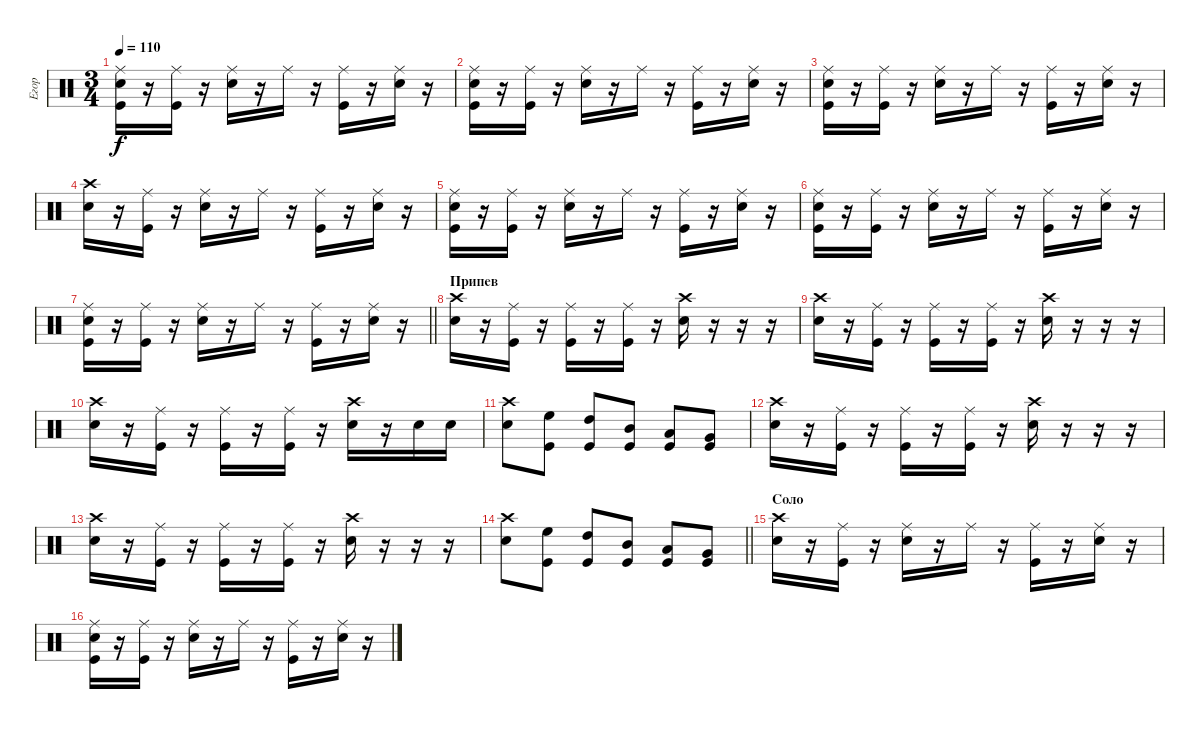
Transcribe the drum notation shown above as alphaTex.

\track ("Егор" "Егор") {instrument percussion}
\staff {score}
\articulation defaults
\ts (3 4)
\tempo 110
\clef neutral
\ks c
("Kick (hit)" "Ride (middle)" "Snare (hit) 2").16{dy f} r.16 ("Ride (middle)" "Kick (hit)").16 r.16 ("Snare (hit) 2" "Ride (middle)").16 r.16 "Ride (middle)".16 r.16 ("Ride (middle)" "Kick (hit)").16 r.16 ("Ride (middle)" "Snare (hit) 2").16 r.16 |
("Kick (hit)" "Ride (middle)" "Snare (hit) 2").16 r.16 ("Ride (middle)" "Kick (hit)").16 r.16 ("Snare (hit) 2" "Ride (middle)").16 r.16 "Ride (middle)".16 r.16 ("Ride (middle)" "Kick (hit)").16 r.16 ("Ride (middle)" "Snare (hit) 2").16 r.16 |
("Kick (hit)" "Ride (middle)" "Snare (hit) 2").16 r.16 ("Ride (middle)" "Kick (hit)").16 r.16 ("Snare (hit) 2" "Ride (middle)").16 r.16 "Ride (middle)".16 r.16 ("Ride (middle)" "Kick (hit)").16 r.16 ("Ride (middle)" "Snare (hit) 2").16 r.16 |
("Snare (hit) 2" "Crash high (hit)").16 r.16 ("Ride (middle)" "Kick (hit)").16 r.16 ("Snare (hit) 2" "Ride (middle)").16 r.16 "Ride (middle)".16 r.16 ("Ride (middle)" "Kick (hit)").16 r.16 ("Ride (middle)" "Snare (hit) 2").16 r.16 |
("Kick (hit)" "Ride (middle)" "Snare (hit) 2").16 r.16 ("Ride (middle)" "Kick (hit)").16 r.16 ("Snare (hit) 2" "Ride (middle)").16 r.16 "Ride (middle)".16 r.16 ("Ride (middle)" "Kick (hit)").16 r.16 ("Ride (middle)" "Snare (hit) 2").16 r.16 |
("Kick (hit)" "Ride (middle)" "Snare (hit) 2").16 r.16 ("Ride (middle)" "Kick (hit)").16 r.16 ("Snare (hit) 2" "Ride (middle)").16 r.16 "Ride (middle)".16 r.16 ("Ride (middle)" "Kick (hit)").16 r.16 ("Ride (middle)" "Snare (hit) 2").16 r.16 |
\barLineRight lightlight
("Kick (hit)" "Ride (middle)" "Snare (hit) 2").16 r.16 ("Ride (middle)" "Kick (hit)").16 r.16 ("Snare (hit) 2" "Ride (middle)").16 r.16 "Ride (middle)".16 r.16 ("Ride (middle)" "Kick (hit)").16 r.16 ("Ride (middle)" "Snare (hit) 2").16 r.16 |
\section ("" "Припев")
("Snare (hit) 2" "Crash high (hit)").16 r.16 ("Ride (middle)" "Kick (hit)").16 r.16 ("Ride (middle)" "Kick (hit)").16 r.16 ("Ride (middle)" "Kick (hit)").16 r.16 ("Snare (hit) 2" "Crash high (hit)").16 r.16 r.16 r.16 |
("Snare (hit) 2" "Crash high (hit)").16 r.16 ("Ride (middle)" "Kick (hit)").16 r.16 ("Ride (middle)" "Kick (hit)").16 r.16 ("Ride (middle)" "Kick (hit)").16 r.16 ("Snare (hit) 2" "Crash high (hit)").16 r.16 r.16 r.16 |
("Snare (hit) 2" "Crash high (hit)").16 r.16 ("Ride (middle)" "Kick (hit)").16 r.16 ("Ride (middle)" "Kick (hit)").16 r.16 ("Ride (middle)" "Kick (hit)").16 r.16 ("Snare (hit) 2" "Crash high (hit)").16 r.16 "Snare (hit) 2".16 "Snare (hit) 2".16 |
("Snare (hit) 2" "Crash high (hit)").8 ("High Floor Tom (hit)" "Kick (hit)").8 ("High Tom (hit)" "Kick (hit)").8 ("Mid Tom (hit)" "Kick (hit)").8 ("Low Tom (hit)" "Kick (hit)").8 ("Very Low Tom (hit)" "Kick (hit)").8 |
("Snare (hit) 2" "Crash high (hit)").16 r.16 ("Ride (middle)" "Kick (hit)").16 r.16 ("Ride (middle)" "Kick (hit)").16 r.16 ("Ride (middle)" "Kick (hit)").16 r.16 ("Snare (hit) 2" "Crash high (hit)").16 r.16 r.16 r.16 |
("Snare (hit) 2" "Crash high (hit)").16 r.16 ("Ride (middle)" "Kick (hit)").16 r.16 ("Ride (middle)" "Kick (hit)").16 r.16 ("Ride (middle)" "Kick (hit)").16 r.16 ("Snare (hit) 2" "Crash high (hit)").16 r.16 r.16 r.16 |
\barLineRight lightlight
("Snare (hit) 2" "Crash high (hit)").8 ("High Floor Tom (hit)" "Kick (hit)").8 ("High Tom (hit)" "Kick (hit)").8 ("Mid Tom (hit)" "Kick (hit)").8 ("Low Tom (hit)" "Kick (hit)").8 ("Very Low Tom (hit)" "Kick (hit)").8 |
\section ("" "Соло")
("Snare (hit) 2" "Crash high (hit)").16 r.16 ("Ride (middle)" "Kick (hit)").16 r.16 ("Snare (hit) 2" "Ride (middle)").16 r.16 "Ride (middle)".16 r.16 ("Ride (middle)" "Kick (hit)").16 r.16 ("Ride (middle)" "Snare (hit) 2").16 r.16 |
("Kick (hit)" "Ride (middle)" "Snare (hit) 2").16 r.16 ("Ride (middle)" "Kick (hit)").16 r.16 ("Snare (hit) 2" "Ride (middle)").16 r.16 "Ride (middle)".16 r.16 ("Ride (middle)" "Kick (hit)").16 r.16 ("Ride (middle)" "Snare (hit) 2").16 r.16
